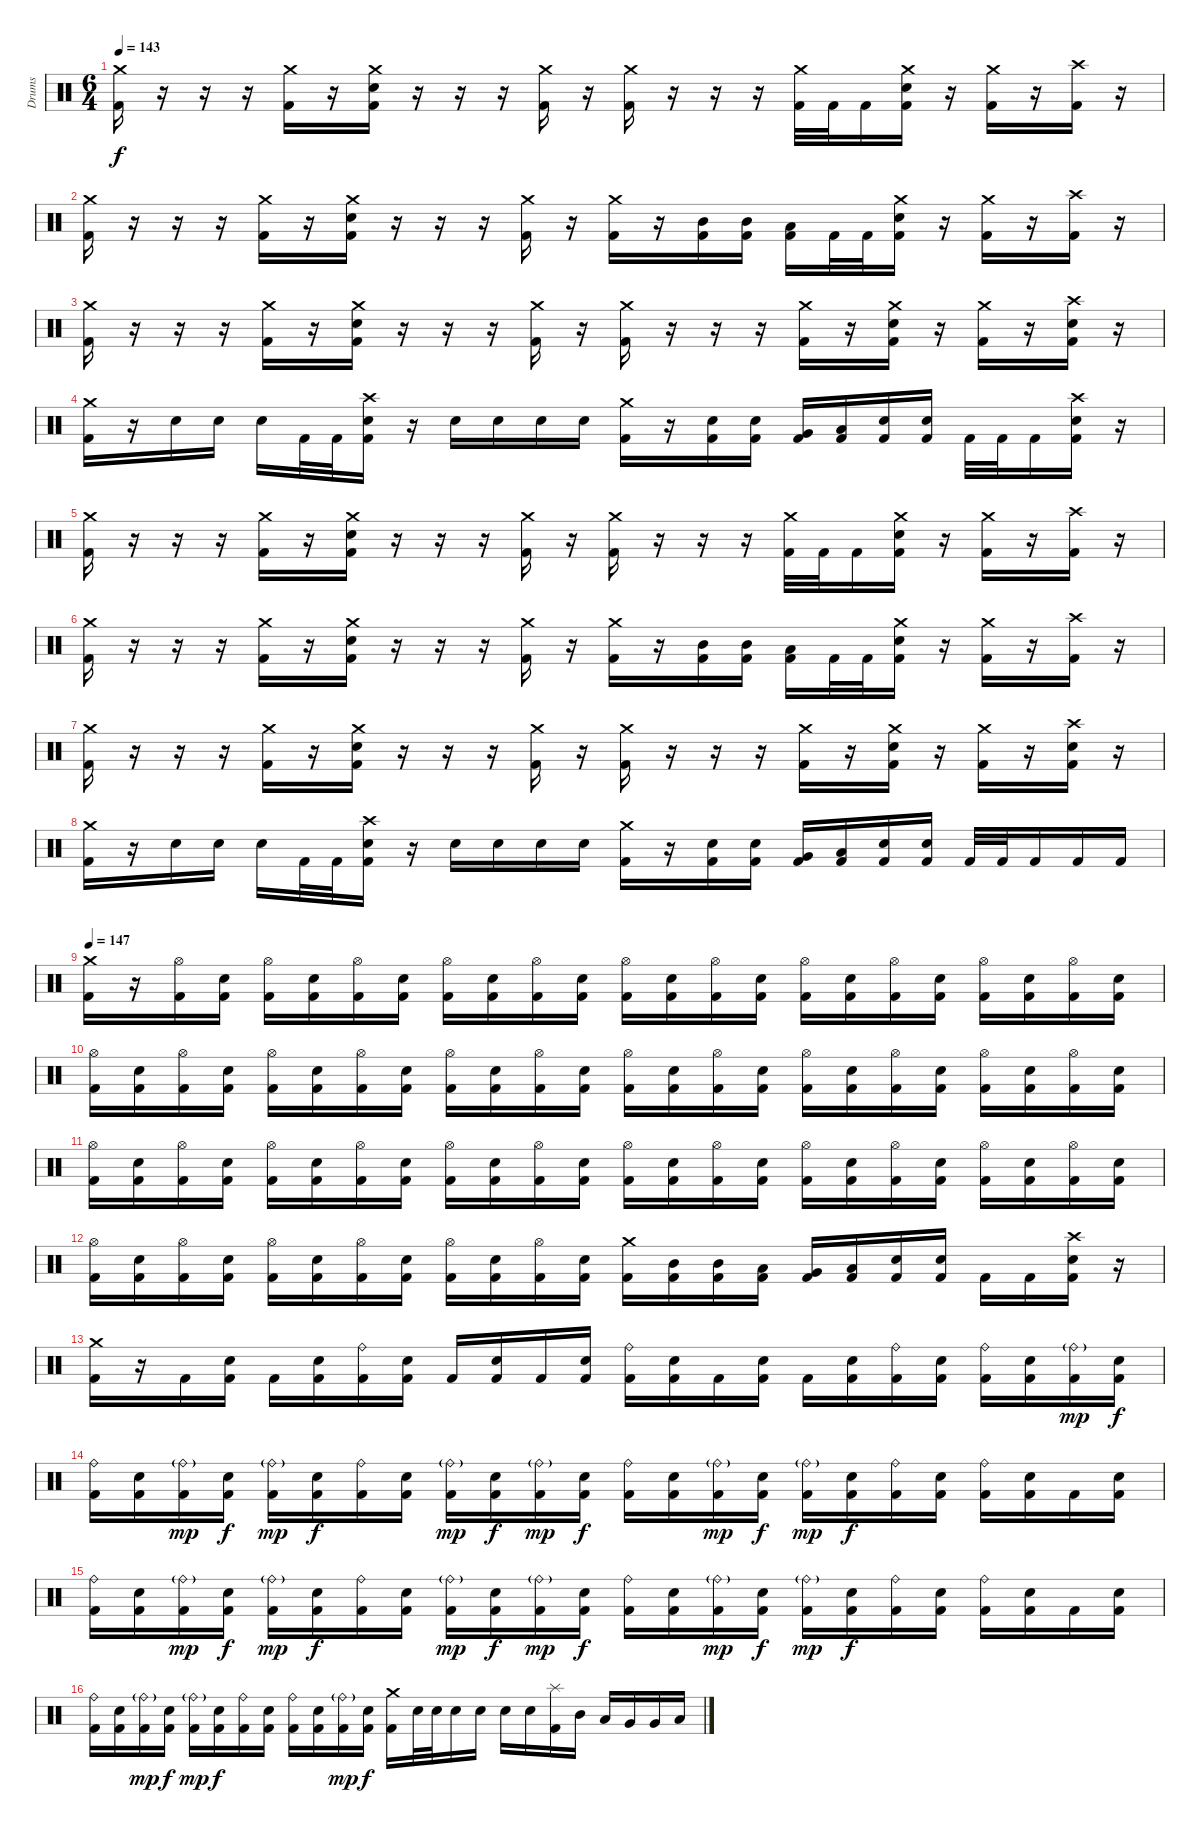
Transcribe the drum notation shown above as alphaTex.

\track ("Drums" "Drums") {instrument percussion}
\staff {score}
\articulation defaults
\ts (6 4)
\section ("" "")
\tempo 143
\clef neutral
\ks c
("Crash medium (hit)" "Kick (hit) 2").16{dy f} r.16 r.16 r.16 ("Crash medium (hit)" "Kick (hit) 2").16 r.16 ("Crash medium (hit)" "Electric Snare (hit)" "Kick (hit) 2").16 r.16 r.16 r.16 ("Crash medium (hit)" "Kick (hit) 2").16 r.16 ("Crash medium (hit)" "Kick (hit) 2").16 r.16 r.16 r.16 ("Crash medium (hit)" "Kick (hit) 2").32 "Kick (hit) 2".32 "Kick (hit) 2".16 ("Crash medium (hit)" "Electric Snare (hit)" "Kick (hit) 2").16 r.16 ("Crash medium (hit)" "Kick (hit) 2").16 r.16 ("Crash high (hit)" "Kick (hit) 2").16 r.16 |
("Crash medium (hit)" "Kick (hit) 2").16 r.16 r.16 r.16 ("Crash medium (hit)" "Kick (hit) 2").16 r.16 ("Crash medium (hit)" "Electric Snare (hit)" "Kick (hit) 2").16 r.16 r.16 r.16 ("Crash medium (hit)" "Kick (hit) 2").16 r.16 ("Crash medium (hit)" "Kick (hit) 2").16 r.16 ("Mid Tom (hit)" "Kick (hit) 2").16 ("Mid Tom (hit)" "Kick (hit) 2").16 ("Low Tom (hit)" "Kick (hit) 2").16 "Kick (hit) 2".32 "Kick (hit) 2".32 ("Crash medium (hit)" "Electric Snare (hit)" "Kick (hit) 2").16 r.16 ("Crash medium (hit)" "Kick (hit) 2").16 r.16 ("Crash high (hit)" "Kick (hit) 2").16 r.16 |
("Crash medium (hit)" "Kick (hit) 2").16 r.16 r.16 r.16 ("Crash medium (hit)" "Kick (hit) 2").16 r.16 ("Crash medium (hit)" "Electric Snare (hit)" "Kick (hit) 2").16 r.16 r.16 r.16 ("Crash medium (hit)" "Kick (hit) 2").16 r.16 ("Crash medium (hit)" "Kick (hit) 2").16 r.16 r.16 r.16 ("Crash medium (hit)" "Kick (hit) 2").16 r.16 ("Crash medium (hit)" "Electric Snare (hit)" "Kick (hit) 2").16 r.16 ("Crash medium (hit)" "Kick (hit) 2").16 r.16 ("Crash high (hit)" "Electric Snare (hit)" "Kick (hit) 2").16 r.16 |
("Crash medium (hit)" "Kick (hit) 2").16 r.16 "Electric Snare (hit)".16 "Electric Snare (hit)".16 "Electric Snare (hit)".16 "Kick (hit) 2".32 "Kick (hit) 2".32 ("Crash high (hit)" "Electric Snare (hit)" "Kick (hit) 2").16 r.16 "Electric Snare (hit)".16 "Electric Snare (hit)".16 "Electric Snare (hit)".16 "Electric Snare (hit)".16 ("Crash medium (hit)" "Kick (hit) 2").16 r.16 ("Electric Snare (hit)" "Kick (hit) 2").16 ("Electric Snare (hit)" "Kick (hit) 2").16 ("Very Low Tom (hit)" "Kick (hit) 2").16 ("Low Tom (hit)" "Kick (hit) 2").16 ("Electric Snare (hit)" "Kick (hit) 2").16 ("Electric Snare (hit)" "Kick (hit) 2").16 "Kick (hit) 2".32 "Kick (hit) 2".32 "Kick (hit) 2".16 ("Crash high (hit)" "Electric Snare (hit)" "Kick (hit) 2").16 r.16 |
\section ("" "")
("Crash medium (hit)" "Kick (hit) 2").16 r.16 r.16 r.16 ("Crash medium (hit)" "Kick (hit) 2").16 r.16 ("Crash medium (hit)" "Electric Snare (hit)" "Kick (hit) 2").16 r.16 r.16 r.16 ("Crash medium (hit)" "Kick (hit) 2").16 r.16 ("Crash medium (hit)" "Kick (hit) 2").16 r.16 r.16 r.16 ("Crash medium (hit)" "Kick (hit) 2").32 "Kick (hit) 2".32 "Kick (hit) 2".16 ("Crash medium (hit)" "Electric Snare (hit)" "Kick (hit) 2").16 r.16 ("Crash medium (hit)" "Kick (hit) 2").16 r.16 ("Crash high (hit)" "Kick (hit) 2").16 r.16 |
("Crash medium (hit)" "Kick (hit) 2").16 r.16 r.16 r.16 ("Crash medium (hit)" "Kick (hit) 2").16 r.16 ("Crash medium (hit)" "Electric Snare (hit)" "Kick (hit) 2").16 r.16 r.16 r.16 ("Crash medium (hit)" "Kick (hit) 2").16 r.16 ("Crash medium (hit)" "Kick (hit) 2").16 r.16 ("Mid Tom (hit)" "Kick (hit) 2").16 ("Mid Tom (hit)" "Kick (hit) 2").16 ("Low Tom (hit)" "Kick (hit) 2").16 "Kick (hit) 2".32 "Kick (hit) 2".32 ("Crash medium (hit)" "Electric Snare (hit)" "Kick (hit) 2").16 r.16 ("Crash medium (hit)" "Kick (hit) 2").16 r.16 ("Crash high (hit)" "Kick (hit) 2").16 r.16 |
("Crash medium (hit)" "Kick (hit) 2").16 r.16 r.16 r.16 ("Crash medium (hit)" "Kick (hit) 2").16 r.16 ("Crash medium (hit)" "Electric Snare (hit)" "Kick (hit) 2").16 r.16 r.16 r.16 ("Crash medium (hit)" "Kick (hit) 2").16 r.16 ("Crash medium (hit)" "Kick (hit) 2").16 r.16 r.16 r.16 ("Crash medium (hit)" "Kick (hit) 2").16 r.16 ("Crash medium (hit)" "Electric Snare (hit)" "Kick (hit) 2").16 r.16 ("Crash medium (hit)" "Kick (hit) 2").16 r.16 ("Crash high (hit)" "Electric Snare (hit)" "Kick (hit) 2").16 r.16 |
("Crash medium (hit)" "Kick (hit) 2").16 r.16 "Electric Snare (hit)".16 "Electric Snare (hit)".16 "Electric Snare (hit)".16 "Kick (hit) 2".32 "Kick (hit) 2".32 ("Crash high (hit)" "Electric Snare (hit)" "Kick (hit) 2").16 r.16 "Electric Snare (hit)".16 "Electric Snare (hit)".16 "Electric Snare (hit)".16 "Electric Snare (hit)".16 ("Crash medium (hit)" "Kick (hit) 2").16 r.16 ("Electric Snare (hit)" "Kick (hit) 2").16 ("Electric Snare (hit)" "Kick (hit) 2").16 ("Very Low Tom (hit)" "Kick (hit) 2").16 ("Low Tom (hit)" "Kick (hit) 2").16 ("Electric Snare (hit)" "Kick (hit) 2").16 ("Electric Snare (hit)" "Kick (hit) 2").16 "Kick (hit) 2".32 "Kick (hit) 2".32 "Kick (hit) 2".16 "Kick (hit) 2".16 "Kick (hit) 2".16 |
\section ("" "")
\tempo 147
("Crash medium (hit)" "Kick (hit) 2").16 r.16 ("Hi-Hat (open)" "Kick (hit) 2").16 ("Electric Snare (hit)" "Kick (hit) 2").16 ("Hi-Hat (open)" "Kick (hit) 2").16 ("Electric Snare (hit)" "Kick (hit) 2").16 ("Hi-Hat (open)" "Kick (hit) 2").16 ("Electric Snare (hit)" "Kick (hit) 2").16 ("Hi-Hat (open)" "Kick (hit) 2").16 ("Electric Snare (hit)" "Kick (hit) 2").16 ("Hi-Hat (open)" "Kick (hit) 2").16 ("Electric Snare (hit)" "Kick (hit) 2").16 ("Hi-Hat (open)" "Kick (hit) 2").16 ("Electric Snare (hit)" "Kick (hit) 2").16 ("Hi-Hat (open)" "Kick (hit) 2").16 ("Electric Snare (hit)" "Kick (hit) 2").16 ("Hi-Hat (open)" "Kick (hit) 2").16 ("Electric Snare (hit)" "Kick (hit) 2").16 ("Hi-Hat (open)" "Kick (hit) 2").16 ("Electric Snare (hit)" "Kick (hit) 2").16 ("Hi-Hat (open)" "Kick (hit) 2").16 ("Electric Snare (hit)" "Kick (hit) 2").16 ("Hi-Hat (open)" "Kick (hit) 2").16 ("Electric Snare (hit)" "Kick (hit) 2").16 |
("Hi-Hat (open)" "Kick (hit) 2").16 ("Electric Snare (hit)" "Kick (hit) 2").16 ("Hi-Hat (open)" "Kick (hit) 2").16 ("Electric Snare (hit)" "Kick (hit) 2").16 ("Hi-Hat (open)" "Kick (hit) 2").16 ("Electric Snare (hit)" "Kick (hit) 2").16 ("Hi-Hat (open)" "Kick (hit) 2").16 ("Electric Snare (hit)" "Kick (hit) 2").16 ("Hi-Hat (open)" "Kick (hit) 2").16 ("Electric Snare (hit)" "Kick (hit) 2").16 ("Hi-Hat (open)" "Kick (hit) 2").16 ("Electric Snare (hit)" "Kick (hit) 2").16 ("Hi-Hat (open)" "Kick (hit) 2").16 ("Electric Snare (hit)" "Kick (hit) 2").16 ("Hi-Hat (open)" "Kick (hit) 2").16 ("Electric Snare (hit)" "Kick (hit) 2").16 ("Hi-Hat (open)" "Kick (hit) 2").16 ("Electric Snare (hit)" "Kick (hit) 2").16 ("Hi-Hat (open)" "Kick (hit) 2").16 ("Electric Snare (hit)" "Kick (hit) 2").16 ("Hi-Hat (open)" "Kick (hit) 2").16 ("Electric Snare (hit)" "Kick (hit) 2").16 ("Hi-Hat (open)" "Kick (hit) 2").16 ("Electric Snare (hit)" "Kick (hit) 2").16 |
("Hi-Hat (open)" "Kick (hit) 2").16 ("Electric Snare (hit)" "Kick (hit) 2").16 ("Hi-Hat (open)" "Kick (hit) 2").16 ("Electric Snare (hit)" "Kick (hit) 2").16 ("Hi-Hat (open)" "Kick (hit) 2").16 ("Electric Snare (hit)" "Kick (hit) 2").16 ("Hi-Hat (open)" "Kick (hit) 2").16 ("Electric Snare (hit)" "Kick (hit) 2").16 ("Hi-Hat (open)" "Kick (hit) 2").16 ("Electric Snare (hit)" "Kick (hit) 2").16 ("Hi-Hat (open)" "Kick (hit) 2").16 ("Electric Snare (hit)" "Kick (hit) 2").16 ("Hi-Hat (open)" "Kick (hit) 2").16 ("Electric Snare (hit)" "Kick (hit) 2").16 ("Hi-Hat (open)" "Kick (hit) 2").16 ("Electric Snare (hit)" "Kick (hit) 2").16 ("Hi-Hat (open)" "Kick (hit) 2").16 ("Electric Snare (hit)" "Kick (hit) 2").16 ("Hi-Hat (open)" "Kick (hit) 2").16 ("Electric Snare (hit)" "Kick (hit) 2").16 ("Hi-Hat (open)" "Kick (hit) 2").16 ("Electric Snare (hit)" "Kick (hit) 2").16 ("Hi-Hat (open)" "Kick (hit) 2").16 ("Electric Snare (hit)" "Kick (hit) 2").16 |
("Hi-Hat (open)" "Kick (hit) 2").16 ("Electric Snare (hit)" "Kick (hit) 2").16 ("Hi-Hat (open)" "Kick (hit) 2").16 ("Electric Snare (hit)" "Kick (hit) 2").16 ("Hi-Hat (open)" "Kick (hit) 2").16 ("Electric Snare (hit)" "Kick (hit) 2").16 ("Hi-Hat (open)" "Kick (hit) 2").16 ("Electric Snare (hit)" "Kick (hit) 2").16 ("Hi-Hat (open)" "Kick (hit) 2").16 ("Electric Snare (hit)" "Kick (hit) 2").16 ("Hi-Hat (open)" "Kick (hit) 2").16 ("Electric Snare (hit)" "Kick (hit) 2").16 ("Crash medium (hit)" "Kick (hit) 2").16 ("Mid Tom (hit)" "Kick (hit) 2").16 ("Mid Tom (hit)" "Kick (hit) 2").16 ("Low Tom (hit)" "Kick (hit) 2").16 ("Very Low Tom (hit)" "Kick (hit) 2").16 ("Low Floor Tom (hit)" "Kick (hit) 2").16 ("Electric Snare (hit)" "Kick (hit) 2").16 ("Electric Snare (hit)" "Kick (hit) 2").16 "Kick (hit) 2".16 "Kick (hit) 2".16 ("Crash high (hit)" "Electric Snare (hit)" "Kick (hit) 2").16 r.16 |
("Crash medium (hit)" "Kick (hit) 2").16 r.16 "Kick (hit) 2".16 ("Electric Snare (hit)" "Kick (hit) 2").16 "Kick (hit) 2".16 ("Electric Snare (hit)" "Kick (hit) 2").16 ("Ride (bell)" "Kick (hit) 2").16 ("Electric Snare (hit)" "Kick (hit) 2").16 "Kick (hit) 2".16 ("Electric Snare (hit)" "Kick (hit) 2").16 "Kick (hit) 2".16 ("Electric Snare (hit)" "Kick (hit) 2").16 ("Ride (bell)" "Kick (hit) 2").16 ("Electric Snare (hit)" "Kick (hit) 2").16 "Kick (hit) 2".16 ("Electric Snare (hit)" "Kick (hit) 2").16 "Kick (hit) 2".16 ("Electric Snare (hit)" "Kick (hit) 2").16 ("Ride (bell)" "Kick (hit) 2").16 ("Electric Snare (hit)" "Kick (hit) 2").16 ("Ride (bell)" "Kick (hit) 2").16 ("Electric Snare (hit)" "Kick (hit) 2").16 ("Ride (bell)"{g} "Kick (hit) 2").16{dy mp} ("Electric Snare (hit)" "Kick (hit) 2").16{dy f} |
("Ride (bell)" "Kick (hit) 2").16 ("Electric Snare (hit)" "Kick (hit) 2").16 ("Ride (bell)"{g} "Kick (hit) 2").16{dy mp} ("Electric Snare (hit)" "Kick (hit) 2").16{dy f} ("Ride (bell)"{g} "Kick (hit) 2").16{dy mp} ("Electric Snare (hit)" "Kick (hit) 2").16{dy f} ("Ride (bell)" "Kick (hit) 2").16 ("Electric Snare (hit)" "Kick (hit) 2").16 ("Ride (bell)"{g} "Kick (hit) 2").16{dy mp} ("Electric Snare (hit)" "Kick (hit) 2").16{dy f} ("Ride (bell)"{g} "Kick (hit) 2").16{dy mp} ("Electric Snare (hit)" "Kick (hit) 2").16{dy f} ("Ride (bell)" "Kick (hit) 2").16 ("Electric Snare (hit)" "Kick (hit) 2").16 ("Ride (bell)"{g} "Kick (hit) 2").16{dy mp} ("Electric Snare (hit)" "Kick (hit) 2").16{dy f} ("Ride (bell)"{g} "Kick (hit) 2").16{dy mp} ("Electric Snare (hit)" "Kick (hit) 2").16{dy f} ("Ride (bell)" "Kick (hit) 2").16 ("Electric Snare (hit)" "Kick (hit) 2").16 ("Ride (bell)" "Kick (hit) 2").16 ("Electric Snare (hit)" "Kick (hit) 2").16 "Kick (hit) 2".16 ("Electric Snare (hit)" "Kick (hit) 2").16 |
("Ride (bell)" "Kick (hit) 2").16 ("Electric Snare (hit)" "Kick (hit) 2").16 ("Ride (bell)"{g} "Kick (hit) 2").16{dy mp} ("Electric Snare (hit)" "Kick (hit) 2").16{dy f} ("Ride (bell)"{g} "Kick (hit) 2").16{dy mp} ("Electric Snare (hit)" "Kick (hit) 2").16{dy f} ("Ride (bell)" "Kick (hit) 2").16 ("Electric Snare (hit)" "Kick (hit) 2").16 ("Ride (bell)"{g} "Kick (hit) 2").16{dy mp} ("Electric Snare (hit)" "Kick (hit) 2").16{dy f} ("Ride (bell)"{g} "Kick (hit) 2").16{dy mp} ("Electric Snare (hit)" "Kick (hit) 2").16{dy f} ("Ride (bell)" "Kick (hit) 2").16 ("Electric Snare (hit)" "Kick (hit) 2").16 ("Ride (bell)"{g} "Kick (hit) 2").16{dy mp} ("Electric Snare (hit)" "Kick (hit) 2").16{dy f} ("Ride (bell)"{g} "Kick (hit) 2").16{dy mp} ("Electric Snare (hit)" "Kick (hit) 2").16{dy f} ("Ride (bell)" "Kick (hit) 2").16 ("Electric Snare (hit)" "Kick (hit) 2").16 ("Ride (bell)" "Kick (hit) 2").16 ("Electric Snare (hit)" "Kick (hit) 2").16 "Kick (hit) 2".16 ("Electric Snare (hit)" "Kick (hit) 2").16 |
("Ride (bell)" "Kick (hit) 2").16 ("Electric Snare (hit)" "Kick (hit) 2").16 ("Ride (bell)"{g} "Kick (hit) 2").16{dy mp} ("Electric Snare (hit)" "Kick (hit) 2").16{dy f} ("Ride (bell)"{g} "Kick (hit) 2").16{dy mp} ("Electric Snare (hit)" "Kick (hit) 2").16{dy f} ("Ride (bell)" "Kick (hit) 2").16 ("Electric Snare (hit)" "Kick (hit) 2").16 ("Ride (bell)" "Kick (hit) 2").16 ("Electric Snare (hit)" "Kick (hit) 2").16 ("Ride (bell)"{g} "Kick (hit) 2").16{dy mp} ("Electric Snare (hit)" "Kick (hit) 2").16{dy f} ("Crash medium (hit)" "Kick (hit) 2").16 "Electric Snare (hit)".32 "Electric Snare (hit)".32 "Electric Snare (hit)".16 "Electric Snare (hit)".16 "Electric Snare (hit)".16 "Electric Snare (hit)".16 ("Splash (hit)" "Kick (hit) 2").16 "Mid Tom (hit)".16 "Low Tom (hit)".16 "Very Low Tom (hit)".16 "Very Low Tom (hit)".16 "Low Floor Tom (hit)".16
